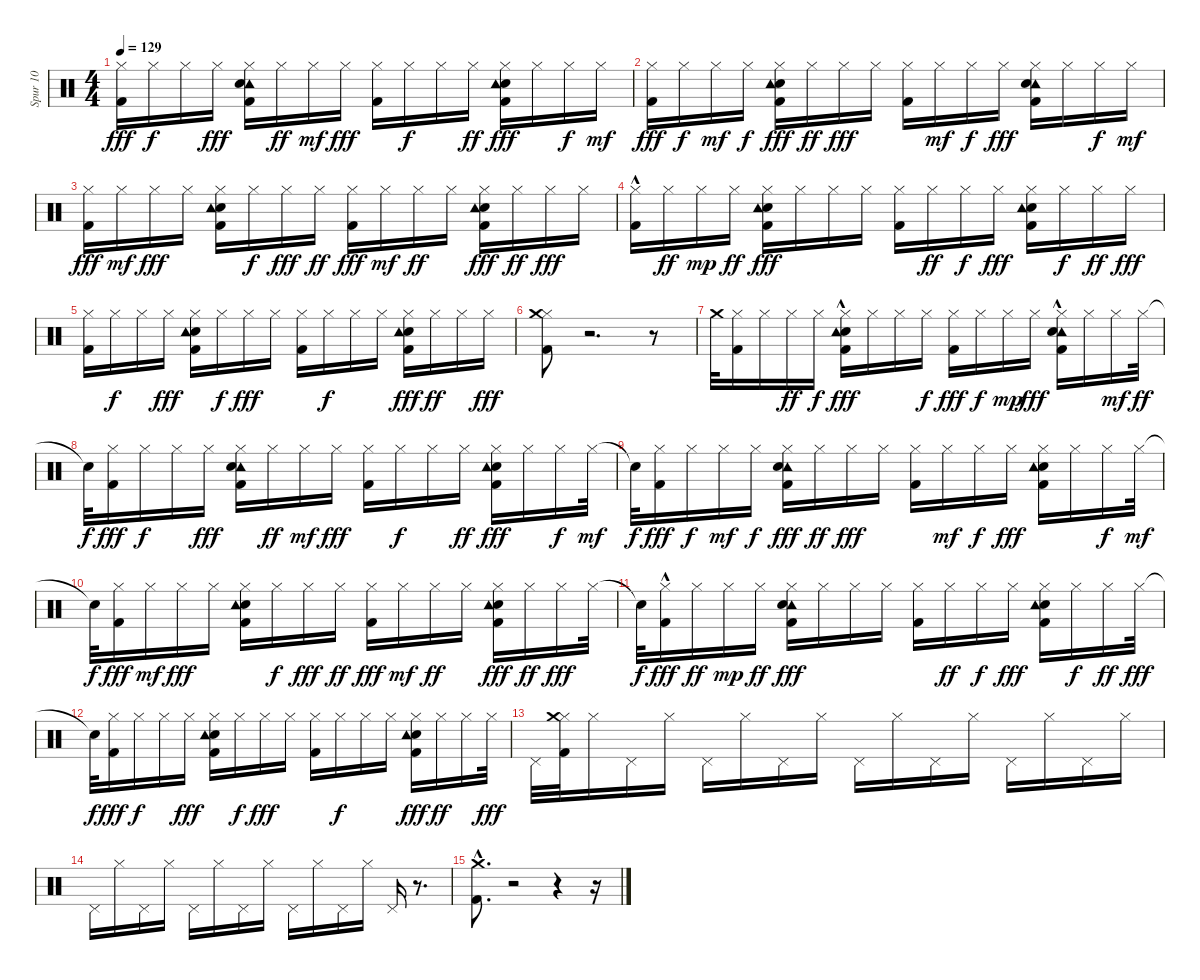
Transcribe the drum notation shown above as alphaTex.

\track ("Spur 10" "Spur 10") {instrument percussion}
\staff {score}
\articulation defaults
\ts (4 4)
\tempo 129
\clef neutral
\ks c
("Hi-Hat (closed)" "Kick (hit) 2").16{dy fff} "Hi-Hat (closed)".16{dy f} "Hi-Hat (closed)".16 "Hi-Hat (closed)".16{dy fff} ("Tambourine (hit)" "Kick (hit) 2" "Electric Snare (hit)" "Hi-Hat (closed)").16 "Hi-Hat (closed)".16{dy ff} "Hi-Hat (closed)".16{dy mf} "Hi-Hat (closed)".16{dy fff} ("Kick (hit) 2" "Hi-Hat (closed)").16 "Hi-Hat (closed)".16{dy f} "Hi-Hat (closed)".16 "Hi-Hat (closed)".16{dy ff} ("Hi-Hat (closed)" "Electric Snare (hit)" "Kick (hit) 2" "Tambourine (hit)").16{dy fff} "Hi-Hat (closed)".16 "Hi-Hat (closed)".16{dy f} "Hi-Hat (closed)".16{dy mf} |
("Hi-Hat (closed)" "Kick (hit) 2").16{dy fff} "Hi-Hat (closed)".16{dy f} "Hi-Hat (closed)".16{dy mf} "Hi-Hat (closed)".16{dy f} ("Hi-Hat (closed)" "Electric Snare (hit)" "Kick (hit) 2" "Tambourine (hit)").16{dy fff} "Hi-Hat (closed)".16{dy ff} "Hi-Hat (closed)".16{dy fff} "Hi-Hat (closed)".16 ("Kick (hit) 2" "Hi-Hat (closed)").16 "Hi-Hat (closed)".16{dy mf} "Hi-Hat (closed)".16{dy f} "Hi-Hat (closed)".16{dy fff} ("Hi-Hat (closed)" "Tambourine (hit)" "Kick (hit) 2" "Electric Snare (hit)").16 "Hi-Hat (closed)".16 "Hi-Hat (closed)".16{dy f} "Hi-Hat (closed)".16{dy mf} |
("Kick (hit) 2" "Hi-Hat (closed)").16{dy fff} "Hi-Hat (closed)".16{dy mf} "Hi-Hat (closed)".16{dy fff} "Hi-Hat (closed)".16 ("Kick (hit) 2" "Hi-Hat (closed)" "Electric Snare (hit)" "Tambourine (hit)").16 "Hi-Hat (closed)".16{dy f} "Hi-Hat (closed)".16{dy fff} "Hi-Hat (closed)".16{dy ff} ("Kick (hit) 2" "Hi-Hat (closed)").16{dy fff} "Hi-Hat (closed)".16{dy mf} "Hi-Hat (closed)".16{dy ff} "Hi-Hat (closed)".16 ("Electric Snare (hit)" "Kick (hit) 2" "Tambourine (hit)" "Hi-Hat (closed)").16{dy fff} "Hi-Hat (closed)".16{dy ff} "Hi-Hat (closed)".16{dy fff} "Hi-Hat (closed)".16 |
("Kick (hit) 2"{hac} "Hi-Hat (closed)").16 "Hi-Hat (closed)".16{dy ff} "Hi-Hat (closed)".16{dy mp} "Hi-Hat (closed)".16{dy ff} ("Electric Snare (hit)" "Tambourine (hit)" "Kick (hit) 2" "Hi-Hat (closed)").16{dy fff} "Hi-Hat (closed)".16 "Hi-Hat (closed)".16 "Hi-Hat (closed)".16 ("Hi-Hat (closed)" "Kick (hit) 2").16 "Hi-Hat (closed)".16{dy ff} "Hi-Hat (closed)".16{dy f} "Hi-Hat (closed)".16{dy fff} ("Kick (hit) 2" "Hi-Hat (closed)" "Electric Snare (hit)" "Tambourine (hit)").16 "Hi-Hat (closed)".16{dy f} "Hi-Hat (closed)".16{dy ff} "Hi-Hat (closed)".16{dy fff} |
("Kick (hit) 2" "Hi-Hat (closed)").16 "Hi-Hat (closed)".16{dy f} "Hi-Hat (closed)".16 "Hi-Hat (closed)".16{dy fff} ("Hi-Hat (closed)" "Kick (hit) 2" "Electric Snare (hit)" "Tambourine (hit)").16 "Hi-Hat (closed)".16{dy f} "Hi-Hat (closed)".16{dy fff} "Hi-Hat (closed)".16 ("Hi-Hat (closed)" "Kick (hit) 2").16 "Hi-Hat (closed)".16{dy f} "Hi-Hat (closed)".16 "Hi-Hat (closed)".16 ("Kick (hit) 2" "Electric Snare (hit)" "Hi-Hat (closed)" "Tambourine (hit)").16{dy fff} "Hi-Hat (closed)".16{dy ff} "Hi-Hat (closed)".16 "Hi-Hat (closed)".16{dy fff} |
("Hi-Hat (closed)" "Kick (hit) 2" "Crash medium (hit)").8 r.2{d} r.8 |
"Crash medium (hit)".32 ("Kick (hit) 2" "Hi-Hat (closed)").16 "Hi-Hat (closed)".16 "Hi-Hat (closed)".16{dy ff} "Hi-Hat (closed)".16{dy f} ("Electric Snare (hit)" "Hi-Hat (closed)" "Kick (hit) 2"{hac} "Tambourine (hit)").16{dy fff} "Hi-Hat (closed)".16 "Hi-Hat (closed)".16 "Hi-Hat (closed)".16{dy f} ("Hi-Hat (closed)" "Kick (hit) 2").16{dy fff} "Hi-Hat (closed)".16{dy f} "Hi-Hat (closed)".16{dy mp} "Hi-Hat (closed)".16{dy fff} ("Kick (hit) 2" "Tambourine (hit)" "Hi-Hat (closed)" "Electric Snare (hit)"{hac}).16 "Hi-Hat (closed)".16 "Hi-Hat (closed)".16{dy mf} "Hi-Hat (closed)".32{dy ff} |
"Snare (hit)"{t}.32{dy f} ("Kick (hit) 2" "Hi-Hat (closed)").16{dy fff} "Hi-Hat (closed)".16{dy f} "Hi-Hat (closed)".16 "Hi-Hat (closed)".16{dy fff} ("Tambourine (hit)" "Hi-Hat (closed)" "Kick (hit) 2" "Electric Snare (hit)").16 "Hi-Hat (closed)".16{dy ff} "Hi-Hat (closed)".16{dy mf} "Hi-Hat (closed)".16{dy fff} ("Kick (hit) 2" "Hi-Hat (closed)").16 "Hi-Hat (closed)".16{dy f} "Hi-Hat (closed)".16 "Hi-Hat (closed)".16{dy ff} ("Kick (hit) 2" "Hi-Hat (closed)" "Electric Snare (hit)" "Tambourine (hit)").16{dy fff} "Hi-Hat (closed)".16 "Hi-Hat (closed)".16{dy f} "Hi-Hat (closed)".32{dy mf} |
"Snare (hit)"{t}.32{dy f} ("Kick (hit) 2" "Hi-Hat (closed)").16{dy fff} "Hi-Hat (closed)".16{dy f} "Hi-Hat (closed)".16{dy mf} "Hi-Hat (closed)".16{dy f} ("Kick (hit) 2" "Hi-Hat (closed)" "Tambourine (hit)" "Electric Snare (hit)").16{dy fff} "Hi-Hat (closed)".16{dy ff} "Hi-Hat (closed)".16{dy fff} "Hi-Hat (closed)".16 ("Kick (hit) 2" "Hi-Hat (closed)").16 "Hi-Hat (closed)".16{dy mf} "Hi-Hat (closed)".16{dy f} "Hi-Hat (closed)".16{dy fff} ("Electric Snare (hit)" "Kick (hit) 2" "Hi-Hat (closed)" "Tambourine (hit)").16 "Hi-Hat (closed)".16 "Hi-Hat (closed)".16{dy f} "Hi-Hat (closed)".32{dy mf} |
"Snare (hit)"{t}.32{dy f} ("Kick (hit) 2" "Hi-Hat (closed)").16{dy fff} "Hi-Hat (closed)".16{dy mf} "Hi-Hat (closed)".16{dy fff} "Hi-Hat (closed)".16 ("Kick (hit) 2" "Electric Snare (hit)" "Hi-Hat (closed)" "Tambourine (hit)").16 "Hi-Hat (closed)".16{dy f} "Hi-Hat (closed)".16{dy fff} "Hi-Hat (closed)".16{dy ff} ("Hi-Hat (closed)" "Kick (hit) 2").16{dy fff} "Hi-Hat (closed)".16{dy mf} "Hi-Hat (closed)".16{dy ff} "Hi-Hat (closed)".16 ("Electric Snare (hit)" "Tambourine (hit)" "Kick (hit) 2" "Hi-Hat (closed)").16{dy fff} "Hi-Hat (closed)".16{dy ff} "Hi-Hat (closed)".16{dy fff} "Hi-Hat (closed)".32 |
"Snare (hit)"{t}.32{dy f} ("Kick (hit) 2"{hac} "Hi-Hat (closed)").16{dy fff} "Hi-Hat (closed)".16{dy ff} "Hi-Hat (closed)".16{dy mp} "Hi-Hat (closed)".16{dy ff} ("Tambourine (hit)" "Kick (hit) 2" "Hi-Hat (closed)" "Electric Snare (hit)").16{dy fff} "Hi-Hat (closed)".16 "Hi-Hat (closed)".16 "Hi-Hat (closed)".16 ("Kick (hit) 2" "Hi-Hat (closed)").16 "Hi-Hat (closed)".16{dy ff} "Hi-Hat (closed)".16{dy f} "Hi-Hat (closed)".16{dy fff} ("Kick (hit) 2" "Hi-Hat (closed)" "Electric Snare (hit)" "Tambourine (hit)").16 "Hi-Hat (closed)".16{dy f} "Hi-Hat (closed)".16{dy ff} "Hi-Hat (closed)".32{dy fff} |
"Snare (hit)"{t}.32{dy f} ("Kick (hit) 2" "Hi-Hat (closed)").16{dy fff} "Hi-Hat (closed)".16{dy f} "Hi-Hat (closed)".16 "Hi-Hat (closed)".16{dy fff} ("Electric Snare (hit)" "Hi-Hat (closed)" "Kick (hit) 2" "Tambourine (hit)").16 "Hi-Hat (closed)".16{dy f} "Hi-Hat (closed)".16{dy fff} "Hi-Hat (closed)".16 ("Hi-Hat (closed)" "Kick (hit) 2").16 "Hi-Hat (closed)".16{dy f} "Hi-Hat (closed)".16 "Hi-Hat (closed)".16 ("Hi-Hat (closed)" "Electric Snare (hit)" "Tambourine (hit)" "Kick (hit) 2").16{dy fff} "Hi-Hat (closed)".16{dy ff} "Hi-Hat (closed)".16 "Hi-Hat (closed)".32{dy fff} |
"Pedal Hi-Hat (hit)".32 ("Hi-Hat (closed)" "Kick (hit) 2" "Crash medium (hit)").32 "Hi-Hat (closed)".16 "Pedal Hi-Hat (hit)".16 "Hi-Hat (closed)".16 "Pedal Hi-Hat (hit)".16 "Hi-Hat (closed)".16 "Pedal Hi-Hat (hit)".16 "Hi-Hat (closed)".16 "Pedal Hi-Hat (hit)".16 "Hi-Hat (closed)".16 "Pedal Hi-Hat (hit)".16 "Hi-Hat (closed)".16 "Pedal Hi-Hat (hit)".16 "Hi-Hat (closed)".16 "Pedal Hi-Hat (hit)".16 "Hi-Hat (closed)".16 |
"Pedal Hi-Hat (hit)".16 "Hi-Hat (closed)".16 "Pedal Hi-Hat (hit)".16 "Hi-Hat (closed)".16 "Pedal Hi-Hat (hit)".16 "Hi-Hat (closed)".16 "Pedal Hi-Hat (hit)".16 "Hi-Hat (closed)".16 "Pedal Hi-Hat (hit)".16 "Hi-Hat (closed)".16 "Pedal Hi-Hat (hit)".16 "Hi-Hat (closed)".16 "Pedal Hi-Hat (hit)".16 r.8{d} |
("Crash medium (hit)"{hac} "Kick (hit) 2"{hac}).8{d} r.2 r.4 r.16
